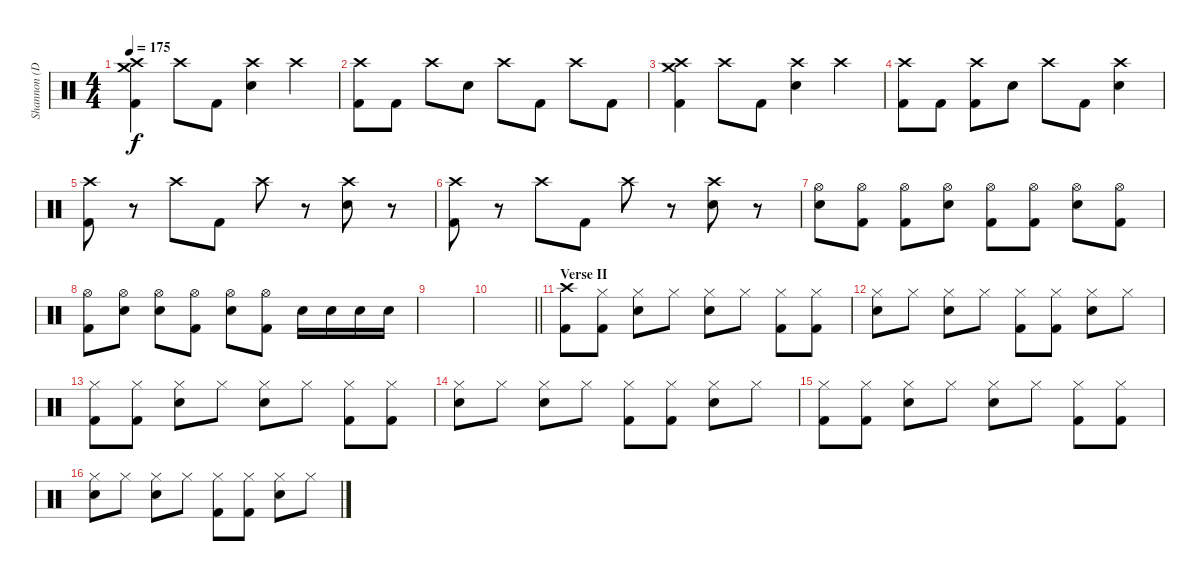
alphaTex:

\track ("Shannon (Drum)" "Shannon (D") {instrument percussion}
\staff {score}
\articulation defaults
\ts (4 4)
\tempo 175
\clef neutral
\ks c
("Crash high (hit)" "Crash medium (hit)" "Kick (hit) 2").4{dy f} "Crash high (hit)".8 "Kick (hit) 2".8 ("Crash high (hit)" "Electric Snare (hit)").4 "Crash high (hit)".4 |
("Crash high (hit)" "Kick (hit) 2").8 "Kick (hit) 2".8 "Crash high (hit)".8 "Electric Snare (hit)".8 "Crash high (hit)".8 "Kick (hit) 2".8 "Crash high (hit)".8 "Kick (hit) 2".8 |
("Crash high (hit)" "Crash medium (hit)" "Kick (hit) 2").4 "Crash high (hit)".8 "Kick (hit) 2".8 ("Crash high (hit)" "Electric Snare (hit)").4 "Crash high (hit)".4 |
("Crash high (hit)" "Kick (hit) 2").8 "Kick (hit) 2".8 ("Crash high (hit)" "Kick (hit) 2").8 "Electric Snare (hit)".8 "Crash high (hit)".8 "Kick (hit) 2".8 ("Crash high (hit)" "Electric Snare (hit)").4 |
("Crash high (hit)" "Kick (hit) 2").8 r.8 "Crash high (hit)".8 "Kick (hit) 2".8 "Crash high (hit)".8 r.8 ("Crash high (hit)" "Electric Snare (hit)").8 r.8 |
("Crash high (hit)" "Kick (hit) 2").8 r.8 "Crash high (hit)".8 "Kick (hit) 2".8 "Crash high (hit)".8 r.8 ("Crash high (hit)" "Electric Snare (hit)").8 r.8 |
("Hi-Hat (open)" "Electric Snare (hit)").8 ("Hi-Hat (open)" "Kick (hit) 2").8 ("Hi-Hat (open)" "Kick (hit) 2").8 ("Hi-Hat (open)" "Electric Snare (hit)").8 ("Hi-Hat (open)" "Kick (hit) 2").8 ("Hi-Hat (open)" "Kick (hit) 2").8 ("Hi-Hat (open)" "Electric Snare (hit)").8 ("Hi-Hat (open)" "Kick (hit) 2").8 |
("Hi-Hat (open)" "Kick (hit) 2").8 ("Hi-Hat (open)" "Electric Snare (hit)").8 ("Hi-Hat (open)" "Electric Snare (hit)").8 ("Hi-Hat (open)" "Kick (hit) 2").8 ("Hi-Hat (open)" "Electric Snare (hit)").8 ("Hi-Hat (open)" "Kick (hit) 2").8 "Electric Snare (hit)".16 "Electric Snare (hit)".16 "Electric Snare (hit)".16 "Electric Snare (hit)".16 |
|
\barLineRight lightlight
|
\section ("" "Verse II")
("Crash high (hit)" "Kick (hit) 2").8 ("Hi-Hat (closed)" "Kick (hit) 2").8 ("Hi-Hat (closed)" "Electric Snare (hit)").8 "Hi-Hat (closed)".8 ("Hi-Hat (closed)" "Electric Snare (hit)").8 "Hi-Hat (closed)".8 ("Hi-Hat (closed)" "Kick (hit) 2").8 ("Hi-Hat (closed)" "Kick (hit) 2").8 |
("Hi-Hat (closed)" "Electric Snare (hit)").8 "Hi-Hat (closed)".8 ("Hi-Hat (closed)" "Electric Snare (hit)").8 "Hi-Hat (closed)".8 ("Hi-Hat (closed)" "Kick (hit) 2").8 ("Hi-Hat (closed)" "Kick (hit) 2").8 ("Hi-Hat (closed)" "Electric Snare (hit)").8 "Hi-Hat (closed)".8 |
("Hi-Hat (closed)" "Kick (hit) 2").8 ("Hi-Hat (closed)" "Kick (hit) 2").8 ("Hi-Hat (closed)" "Electric Snare (hit)").8 "Hi-Hat (closed)".8 ("Hi-Hat (closed)" "Electric Snare (hit)").8 "Hi-Hat (closed)".8 ("Hi-Hat (closed)" "Kick (hit) 2").8 ("Hi-Hat (closed)" "Kick (hit) 2").8 |
("Hi-Hat (closed)" "Electric Snare (hit)").8 "Hi-Hat (closed)".8 ("Hi-Hat (closed)" "Electric Snare (hit)").8 "Hi-Hat (closed)".8 ("Hi-Hat (closed)" "Kick (hit) 2").8 ("Hi-Hat (closed)" "Kick (hit) 2").8 ("Hi-Hat (closed)" "Electric Snare (hit)").8 "Hi-Hat (closed)".8 |
("Hi-Hat (closed)" "Kick (hit) 2").8 ("Hi-Hat (closed)" "Kick (hit) 2").8 ("Hi-Hat (closed)" "Electric Snare (hit)").8 "Hi-Hat (closed)".8 ("Hi-Hat (closed)" "Electric Snare (hit)").8 "Hi-Hat (closed)".8 ("Hi-Hat (closed)" "Kick (hit) 2").8 ("Hi-Hat (closed)" "Kick (hit) 2").8 |
("Hi-Hat (closed)" "Electric Snare (hit)").8 "Hi-Hat (closed)".8 ("Hi-Hat (closed)" "Electric Snare (hit)").8 "Hi-Hat (closed)".8 ("Hi-Hat (closed)" "Kick (hit) 2").8 ("Hi-Hat (closed)" "Kick (hit) 2").8 ("Hi-Hat (closed)" "Electric Snare (hit)").8 "Hi-Hat (closed)".8
